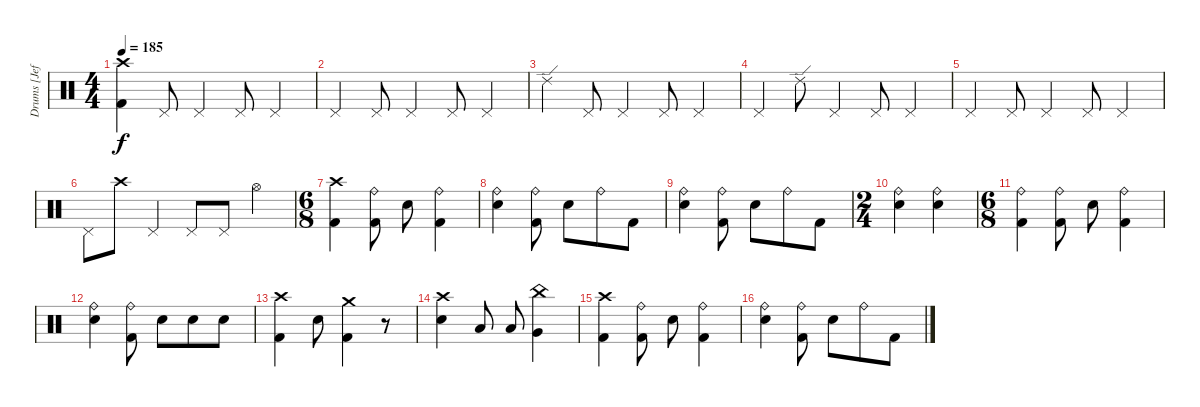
\track ("Drums [Jeff]" "Drums [Jef") {instrument percussion}
\staff {score}
\articulation defaults
\ts (4 4)
\tempo 185
\clef neutral
\ks c
("Crash high (hit)" "Kick (hit) 2").4{dy f} "Pedal Hi-Hat (hit)".8 "Pedal Hi-Hat (hit)".4 "Pedal Hi-Hat (hit)".8 "Pedal Hi-Hat (hit)".4 |
"Pedal Hi-Hat (hit)".4 "Pedal Hi-Hat (hit)".8 "Pedal Hi-Hat (hit)".4 "Pedal Hi-Hat (hit)".8 "Pedal Hi-Hat (hit)".4 |
"Ride (edge) 2".4 "Pedal Hi-Hat (hit)".8 "Pedal Hi-Hat (hit)".4 "Pedal Hi-Hat (hit)".8 "Pedal Hi-Hat (hit)".4 |
"Pedal Hi-Hat (hit)".4 "Ride (edge) 2".8 "Pedal Hi-Hat (hit)".4 "Pedal Hi-Hat (hit)".8 "Pedal Hi-Hat (hit)".4 |
"Pedal Hi-Hat (hit)".4 "Pedal Hi-Hat (hit)".8 "Pedal Hi-Hat (hit)".4 "Pedal Hi-Hat (hit)".8 "Pedal Hi-Hat (hit)".4 |
"Pedal Hi-Hat (hit)".8 "Crash high (hit)".8 "Pedal Hi-Hat (hit)".4 "Pedal Hi-Hat (hit)".8 "Pedal Hi-Hat (hit)".8 "Hi-Hat (open)".4 |
\ts (6 8)
("Crash high (hit)" "Kick (hit) 2").4 ("Ride (bell)" "Kick (hit) 2").8 "Electric Snare (hit)".8 ("Ride (bell)" "Kick (hit) 2").4 |
("Ride (bell)" "Electric Snare (hit)").4 ("Ride (bell)" "Kick (hit) 2").8 "Electric Snare (hit)".8 "Ride (bell)".8 "Kick (hit) 2".8 |
("Ride (bell)" "Electric Snare (hit)").4 ("Ride (bell)" "Kick (hit) 2").8 "Electric Snare (hit)".8 "Ride (bell)".8 "Kick (hit) 2".8 |
\ts (2 4)
("Ride (bell)" "Electric Snare (hit)").4 ("Ride (bell)" "Electric Snare (hit)").4 |
\ts (6 8)
("Ride (bell)" "Kick (hit) 2").4 ("Ride (bell)" "Kick (hit) 2").8 "Electric Snare (hit)".8 ("Ride (bell)" "Kick (hit) 2").4 |
("Ride (bell)" "Electric Snare (hit)").4 ("Ride (bell)" "Kick (hit) 2").8 "Electric Snare (hit)".8 "Electric Snare (hit)".8 "Electric Snare (hit)".8 |
("Crash high (hit)" "Kick (hit) 2").4 "Electric Snare (hit)".8 ("Crash medium (hit)" "Kick (hit) 2").4 r.8 |
("Crash high (hit)" "Electric Snare (hit)").4 "Low Tom (hit)".8 "Low Tom (hit)".8 ("China (hit)" "Very Low Tom (hit)").4 |
("Crash high (hit)" "Kick (hit) 2").4 ("Ride (bell)" "Kick (hit) 2").8 "Electric Snare (hit)".8 ("Ride (bell)" "Kick (hit) 2").4 |
("Ride (bell)" "Electric Snare (hit)").4 ("Ride (bell)" "Kick (hit) 2").8 "Electric Snare (hit)".8 "Ride (bell)".8 "Kick (hit) 2".8
